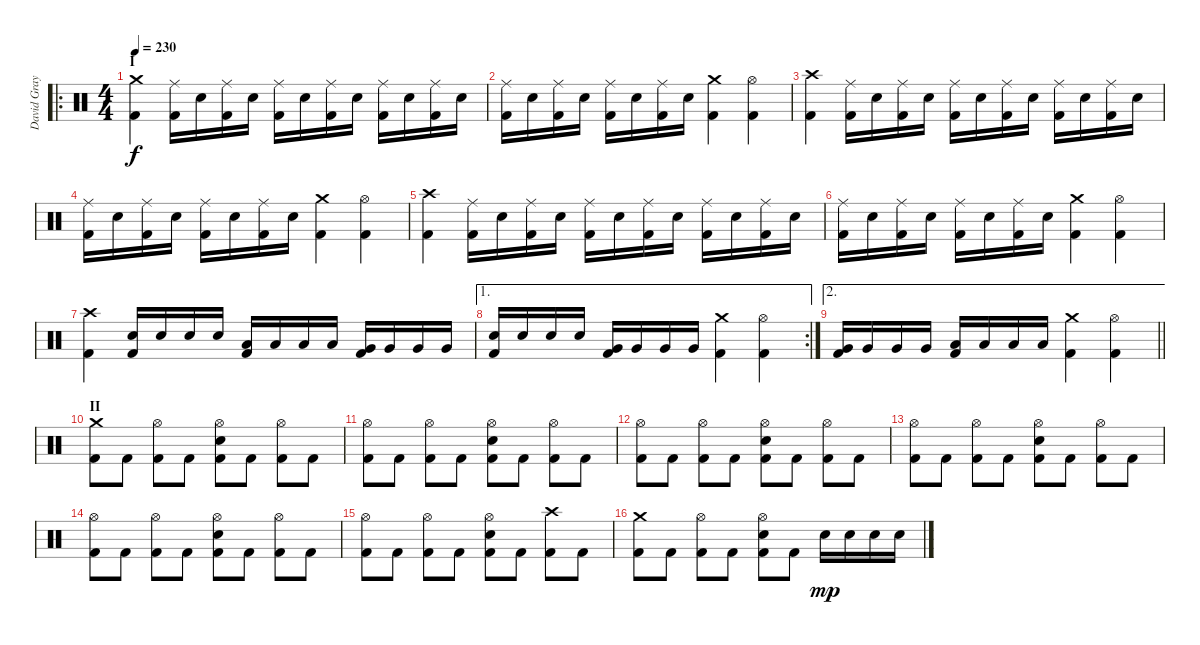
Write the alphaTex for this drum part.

\track ("David Gray" "David Gray") {instrument percussion}
\staff {score}
\articulation defaults
\ro
\ts (4 4)
\section ("" "I")
\tempo 230
\clef neutral
\ks c
("Crash medium (hit)" "Kick (hit) 2").4{dy f} ("Ride (middle)" "Kick (hit) 2").16 "Electric Snare (hit)".16 ("Ride (middle)" "Kick (hit) 2").16 "Electric Snare (hit)".16 ("Ride (middle)" "Kick (hit) 2").16 "Electric Snare (hit)".16 ("Ride (middle)" "Kick (hit) 2").16 "Electric Snare (hit)".16 ("Ride (middle)" "Kick (hit) 2").16 "Electric Snare (hit)".16 ("Ride (middle)" "Kick (hit) 2").16 "Electric Snare (hit)".16 |
("Ride (middle)" "Kick (hit) 2").16 "Electric Snare (hit)".16 ("Ride (middle)" "Kick (hit) 2").16 "Electric Snare (hit)".16 ("Ride (middle)" "Kick (hit) 2").16 "Electric Snare (hit)".16 ("Ride (middle)" "Kick (hit) 2").16 "Electric Snare (hit)".16 ("Crash medium (hit)" "Kick (hit) 2").4 ("Hi-Hat (open)" "Kick (hit) 2").4 |
("Crash high (hit)" "Kick (hit) 2").4 ("Ride (middle)" "Kick (hit) 2").16 "Electric Snare (hit)".16 ("Ride (middle)" "Kick (hit) 2").16 "Electric Snare (hit)".16 ("Ride (middle)" "Kick (hit) 2").16 "Electric Snare (hit)".16 ("Ride (middle)" "Kick (hit) 2").16 "Electric Snare (hit)".16 ("Ride (middle)" "Kick (hit) 2").16 "Electric Snare (hit)".16 ("Ride (middle)" "Kick (hit) 2").16 "Electric Snare (hit)".16 |
("Ride (middle)" "Kick (hit) 2").16 "Electric Snare (hit)".16 ("Ride (middle)" "Kick (hit) 2").16 "Electric Snare (hit)".16 ("Ride (middle)" "Kick (hit) 2").16 "Electric Snare (hit)".16 ("Ride (middle)" "Kick (hit) 2").16 "Electric Snare (hit)".16 ("Crash medium (hit)" "Kick (hit) 2").4 ("Hi-Hat (open)" "Kick (hit) 2").4 |
("Crash high (hit)" "Kick (hit) 2").4 ("Ride (middle)" "Kick (hit) 2").16 "Electric Snare (hit)".16 ("Ride (middle)" "Kick (hit) 2").16 "Electric Snare (hit)".16 ("Ride (middle)" "Kick (hit) 2").16 "Electric Snare (hit)".16 ("Ride (middle)" "Kick (hit) 2").16 "Electric Snare (hit)".16 ("Ride (middle)" "Kick (hit) 2").16 "Electric Snare (hit)".16 ("Ride (middle)" "Kick (hit) 2").16 "Electric Snare (hit)".16 |
("Ride (middle)" "Kick (hit) 2").16 "Electric Snare (hit)".16 ("Ride (middle)" "Kick (hit) 2").16 "Electric Snare (hit)".16 ("Ride (middle)" "Kick (hit) 2").16 "Electric Snare (hit)".16 ("Ride (middle)" "Kick (hit) 2").16 "Electric Snare (hit)".16 ("Crash medium (hit)" "Kick (hit) 2").4 ("Hi-Hat (open)" "Kick (hit) 2").4 |
("Crash high (hit)" "Kick (hit) 2").4 ("Electric Snare (hit)" "Kick (hit) 2").16 "Electric Snare (hit)".16 "Electric Snare (hit)".16 "Electric Snare (hit)".16 ("Low Tom (hit)" "Kick (hit) 2").16 "Low Tom (hit)".16 "Low Tom (hit)".16 "Low Tom (hit)".16 ("Very Low Tom (hit)" "Kick (hit) 2").16 "Very Low Tom (hit)".16 "Very Low Tom (hit)".16 "Very Low Tom (hit)".16 |
\ae 1
\rc 2
("Electric Snare (hit)" "Kick (hit) 2").16 "Electric Snare (hit)".16 "Electric Snare (hit)".16 "Electric Snare (hit)".16 ("Very Low Tom (hit)" "Kick (hit) 2").16 "Very Low Tom (hit)".16 "Very Low Tom (hit)".16 "Very Low Tom (hit)".16 ("Crash medium (hit)" "Kick (hit) 2").4 ("Hi-Hat (open)" "Kick (hit) 2").4 |
\ae 2
\barLineRight lightlight
("Very Low Tom (hit)" "Kick (hit) 2").16 "Very Low Tom (hit)".16 "Very Low Tom (hit)".16 "Very Low Tom (hit)".16 ("Low Floor Tom (hit)" "Kick (hit) 2").16 "Low Floor Tom (hit)".16 "Low Floor Tom (hit)".16 "Low Floor Tom (hit)".16 ("Crash medium (hit)" "Kick (hit) 2").4 ("Hi-Hat (open)" "Kick (hit) 2").4 |
\section ("" "II")
("Crash medium (hit)" "Kick (hit) 2").8 "Kick (hit) 2".8 ("Hi-Hat (open)" "Kick (hit) 2").8 "Kick (hit) 2".8 ("Hi-Hat (open)" "Electric Snare (hit)" "Kick (hit) 2").8 "Kick (hit) 2".8 ("Hi-Hat (open)" "Kick (hit) 2").8 "Kick (hit) 2".8 |
("Hi-Hat (open)" "Kick (hit) 2").8 "Kick (hit) 2".8 ("Hi-Hat (open)" "Kick (hit) 2").8 "Kick (hit) 2".8 ("Hi-Hat (open)" "Electric Snare (hit)" "Kick (hit) 2").8 "Kick (hit) 2".8 ("Hi-Hat (open)" "Kick (hit) 2").8 "Kick (hit) 2".8 |
("Hi-Hat (open)" "Kick (hit) 2").8 "Kick (hit) 2".8 ("Hi-Hat (open)" "Kick (hit) 2").8 "Kick (hit) 2".8 ("Hi-Hat (open)" "Electric Snare (hit)" "Kick (hit) 2").8 "Kick (hit) 2".8 ("Hi-Hat (open)" "Kick (hit) 2").8 "Kick (hit) 2".8 |
("Hi-Hat (open)" "Kick (hit) 2").8 "Kick (hit) 2".8 ("Hi-Hat (open)" "Kick (hit) 2").8 "Kick (hit) 2".8 ("Hi-Hat (open)" "Electric Snare (hit)" "Kick (hit) 2").8 "Kick (hit) 2".8 ("Hi-Hat (open)" "Kick (hit) 2").8 "Kick (hit) 2".8 |
("Hi-Hat (open)" "Kick (hit) 2").8 "Kick (hit) 2".8 ("Hi-Hat (open)" "Kick (hit) 2").8 "Kick (hit) 2".8 ("Hi-Hat (open)" "Electric Snare (hit)" "Kick (hit) 2").8 "Kick (hit) 2".8 ("Hi-Hat (open)" "Kick (hit) 2").8 "Kick (hit) 2".8 |
("Hi-Hat (open)" "Kick (hit) 2").8 "Kick (hit) 2".8 ("Hi-Hat (open)" "Kick (hit) 2").8 "Kick (hit) 2".8 ("Hi-Hat (open)" "Electric Snare (hit)" "Kick (hit) 2").8 "Kick (hit) 2".8 ("Crash high (hit)" "Kick (hit) 2").8 "Kick (hit) 2".8 |
("Crash medium (hit)" "Kick (hit) 2").8 "Kick (hit) 2".8 ("Hi-Hat (open)" "Kick (hit) 2").8 "Kick (hit) 2".8 ("Hi-Hat (open)" "Electric Snare (hit)" "Kick (hit) 2").8 "Kick (hit) 2".8 "Electric Snare (hit)".16{dy mp} "Electric Snare (hit)".16 "Electric Snare (hit)".16 "Electric Snare (hit)".16
